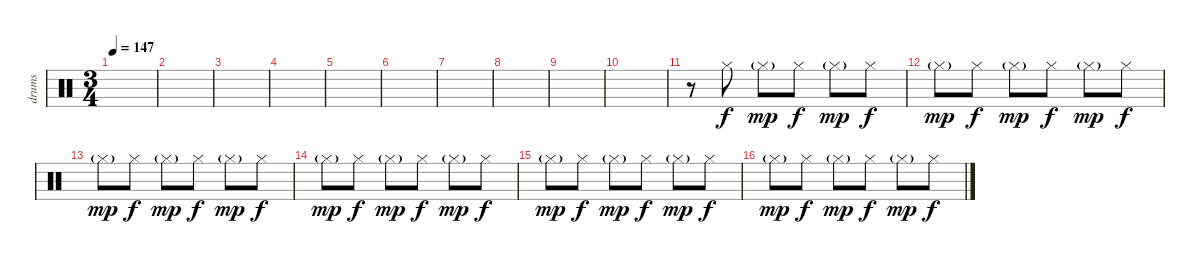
\track ("drums" "drums") {instrument percussion}
\staff {score}
\articulation defaults
\ts (3 4)
\tempo 147
\clef neutral
\ks c
|
|
|
|
|
|
|
|
|
|
r.8 "Hi-Hat (closed)".8 "Hi-Hat (closed)"{g}.8{dy mp} "Hi-Hat (closed)".8{dy f} "Hi-Hat (closed)"{g}.8{dy mp} "Hi-Hat (closed)".8{dy f} |
"Hi-Hat (closed)"{g}.8{dy mp} "Hi-Hat (closed)".8{dy f} "Hi-Hat (closed)"{g}.8{dy mp} "Hi-Hat (closed)".8{dy f} "Hi-Hat (closed)"{g}.8{dy mp} "Hi-Hat (closed)".8{dy f} |
"Hi-Hat (closed)"{g}.8{dy mp} "Hi-Hat (closed)".8{dy f} "Hi-Hat (closed)"{g}.8{dy mp} "Hi-Hat (closed)".8{dy f} "Hi-Hat (closed)"{g}.8{dy mp} "Hi-Hat (closed)".8{dy f} |
"Hi-Hat (closed)"{g}.8{dy mp} "Hi-Hat (closed)".8{dy f} "Hi-Hat (closed)"{g}.8{dy mp} "Hi-Hat (closed)".8{dy f} "Hi-Hat (closed)"{g}.8{dy mp} "Hi-Hat (closed)".8{dy f} |
"Hi-Hat (closed)"{g}.8{dy mp} "Hi-Hat (closed)".8{dy f} "Hi-Hat (closed)"{g}.8{dy mp} "Hi-Hat (closed)".8{dy f} "Hi-Hat (closed)"{g}.8{dy mp} "Hi-Hat (closed)".8{dy f} |
"Hi-Hat (closed)"{g}.8{dy mp} "Hi-Hat (closed)".8{dy f} "Hi-Hat (closed)"{g}.8{dy mp} "Hi-Hat (closed)".8{dy f} "Hi-Hat (closed)"{g}.8{dy mp} "Hi-Hat (closed)".8{dy f}
